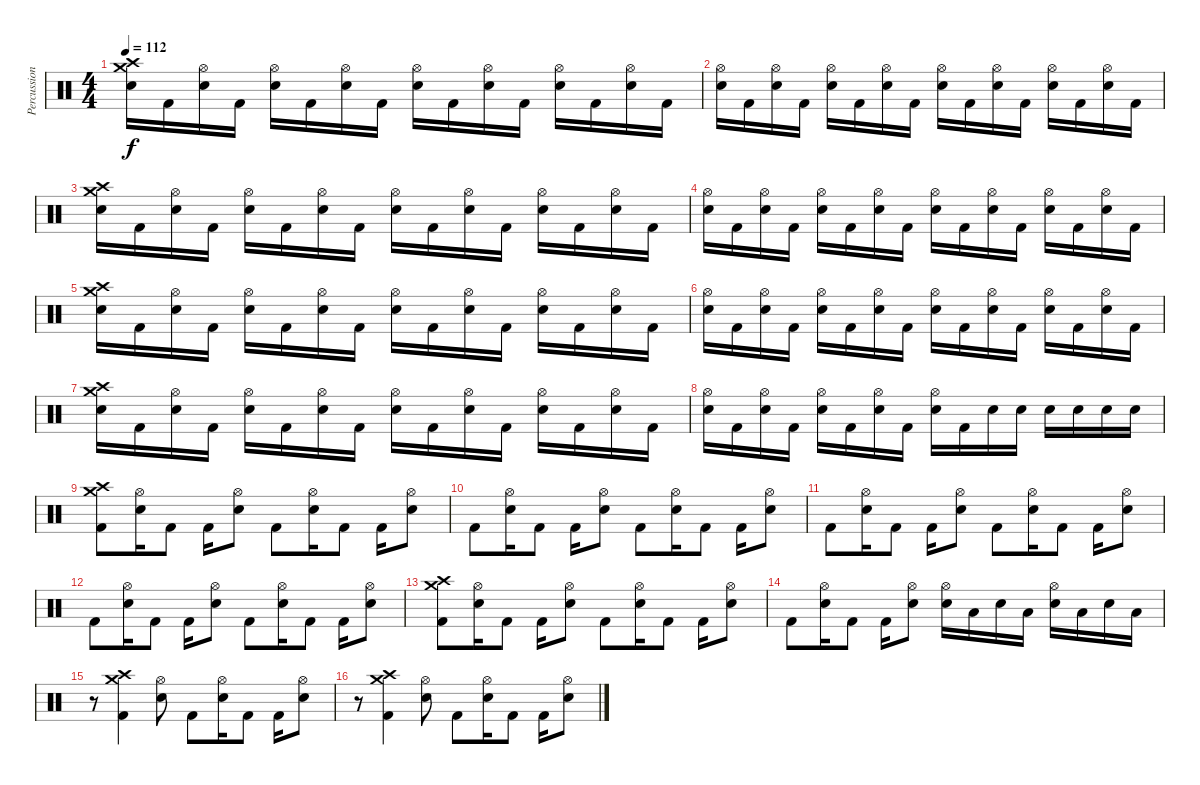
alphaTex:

\track ("Percussion" "Percussion") {instrument percussion}
\staff {score}
\articulation defaults
\ts (4 4)
\tempo 112
\clef neutral
\ks c
("Electric Snare (hit)" "Crash high (hit)" "Crash medium (hit)").16{dy f} "Kick (hit) 2".16 ("Electric Snare (hit)" "Hi-Hat (open)").16 "Kick (hit) 2".16 ("Electric Snare (hit)" "Hi-Hat (open)").16 "Kick (hit) 2".16 ("Electric Snare (hit)" "Hi-Hat (open)").16 "Kick (hit) 2".16 ("Electric Snare (hit)" "Hi-Hat (open)").16 "Kick (hit) 2".16 ("Electric Snare (hit)" "Hi-Hat (open)").16 "Kick (hit) 2".16 ("Electric Snare (hit)" "Hi-Hat (open)").16 "Kick (hit) 2".16 ("Electric Snare (hit)" "Hi-Hat (open)").16 "Kick (hit) 2".16 |
("Electric Snare (hit)" "Hi-Hat (open)").16 "Kick (hit) 2".16 ("Electric Snare (hit)" "Hi-Hat (open)").16 "Kick (hit) 2".16 ("Electric Snare (hit)" "Hi-Hat (open)").16 "Kick (hit) 2".16 ("Electric Snare (hit)" "Hi-Hat (open)").16 "Kick (hit) 2".16 ("Electric Snare (hit)" "Hi-Hat (open)").16 "Kick (hit) 2".16 ("Electric Snare (hit)" "Hi-Hat (open)").16 "Kick (hit) 2".16 ("Electric Snare (hit)" "Hi-Hat (open)").16 "Kick (hit) 2".16 ("Electric Snare (hit)" "Hi-Hat (open)").16 "Kick (hit) 2".16 |
("Electric Snare (hit)" "Crash high (hit)" "Crash medium (hit)").16 "Kick (hit) 2".16 ("Electric Snare (hit)" "Hi-Hat (open)").16 "Kick (hit) 2".16 ("Electric Snare (hit)" "Hi-Hat (open)").16 "Kick (hit) 2".16 ("Electric Snare (hit)" "Hi-Hat (open)").16 "Kick (hit) 2".16 ("Electric Snare (hit)" "Hi-Hat (open)").16 "Kick (hit) 2".16 ("Electric Snare (hit)" "Hi-Hat (open)").16 "Kick (hit) 2".16 ("Electric Snare (hit)" "Hi-Hat (open)").16 "Kick (hit) 2".16 ("Electric Snare (hit)" "Hi-Hat (open)").16 "Kick (hit) 2".16 |
("Electric Snare (hit)" "Hi-Hat (open)").16 "Kick (hit) 2".16 ("Electric Snare (hit)" "Hi-Hat (open)").16 "Kick (hit) 2".16 ("Electric Snare (hit)" "Hi-Hat (open)").16 "Kick (hit) 2".16 ("Electric Snare (hit)" "Hi-Hat (open)").16 "Kick (hit) 2".16 ("Electric Snare (hit)" "Hi-Hat (open)").16 "Kick (hit) 2".16 ("Electric Snare (hit)" "Hi-Hat (open)").16 "Kick (hit) 2".16 ("Electric Snare (hit)" "Hi-Hat (open)").16 "Kick (hit) 2".16 ("Electric Snare (hit)" "Hi-Hat (open)").16 "Kick (hit) 2".16 |
("Electric Snare (hit)" "Crash high (hit)" "Crash medium (hit)").16 "Kick (hit) 2".16 ("Electric Snare (hit)" "Hi-Hat (open)").16 "Kick (hit) 2".16 ("Electric Snare (hit)" "Hi-Hat (open)").16 "Kick (hit) 2".16 ("Electric Snare (hit)" "Hi-Hat (open)").16 "Kick (hit) 2".16 ("Electric Snare (hit)" "Hi-Hat (open)").16 "Kick (hit) 2".16 ("Electric Snare (hit)" "Hi-Hat (open)").16 "Kick (hit) 2".16 ("Electric Snare (hit)" "Hi-Hat (open)").16 "Kick (hit) 2".16 ("Electric Snare (hit)" "Hi-Hat (open)").16 "Kick (hit) 2".16 |
("Electric Snare (hit)" "Hi-Hat (open)").16 "Kick (hit) 2".16 ("Electric Snare (hit)" "Hi-Hat (open)").16 "Kick (hit) 2".16 ("Electric Snare (hit)" "Hi-Hat (open)").16 "Kick (hit) 2".16 ("Electric Snare (hit)" "Hi-Hat (open)").16 "Kick (hit) 2".16 ("Electric Snare (hit)" "Hi-Hat (open)").16 "Kick (hit) 2".16 ("Electric Snare (hit)" "Hi-Hat (open)").16 "Kick (hit) 2".16 ("Electric Snare (hit)" "Hi-Hat (open)").16 "Kick (hit) 2".16 ("Electric Snare (hit)" "Hi-Hat (open)").16 "Kick (hit) 2".16 |
("Electric Snare (hit)" "Crash high (hit)" "Crash medium (hit)").16 "Kick (hit) 2".16 ("Electric Snare (hit)" "Hi-Hat (open)").16 "Kick (hit) 2".16 ("Electric Snare (hit)" "Hi-Hat (open)").16 "Kick (hit) 2".16 ("Electric Snare (hit)" "Hi-Hat (open)").16 "Kick (hit) 2".16 ("Electric Snare (hit)" "Hi-Hat (open)").16 "Kick (hit) 2".16 ("Electric Snare (hit)" "Hi-Hat (open)").16 "Kick (hit) 2".16 ("Electric Snare (hit)" "Hi-Hat (open)").16 "Kick (hit) 2".16 ("Electric Snare (hit)" "Hi-Hat (open)").16 "Kick (hit) 2".16 |
("Electric Snare (hit)" "Hi-Hat (open)").16 "Kick (hit) 2".16 ("Electric Snare (hit)" "Hi-Hat (open)").16 "Kick (hit) 2".16 ("Electric Snare (hit)" "Hi-Hat (open)").16 "Kick (hit) 2".16 ("Electric Snare (hit)" "Hi-Hat (open)").16 "Kick (hit) 2".16 ("Electric Snare (hit)" "Hi-Hat (open)").16 "Kick (hit) 2".16 "Electric Snare (hit)".16 "Electric Snare (hit)".16 "Electric Snare (hit)".16 "Electric Snare (hit)".16 "Electric Snare (hit)".16 "Electric Snare (hit)".16 |
("Kick (hit) 2" "Crash high (hit)" "Crash medium (hit)").8 ("Electric Snare (hit)" "Hi-Hat (open)").16 "Kick (hit) 2".8 "Kick (hit) 2".16 ("Electric Snare (hit)" "Hi-Hat (open)").8 "Kick (hit) 2".8 ("Electric Snare (hit)" "Hi-Hat (open)").16 "Kick (hit) 2".8 "Kick (hit) 2".16 ("Electric Snare (hit)" "Hi-Hat (open)").8 |
"Kick (hit) 2".8 ("Electric Snare (hit)" "Hi-Hat (open)").16 "Kick (hit) 2".8 "Kick (hit) 2".16 ("Electric Snare (hit)" "Hi-Hat (open)").8 "Kick (hit) 2".8 ("Electric Snare (hit)" "Hi-Hat (open)").16 "Kick (hit) 2".8 "Kick (hit) 2".16 ("Electric Snare (hit)" "Hi-Hat (open)").8 |
"Kick (hit) 2".8 ("Electric Snare (hit)" "Hi-Hat (open)").16 "Kick (hit) 2".8 "Kick (hit) 2".16 ("Electric Snare (hit)" "Hi-Hat (open)").8 "Kick (hit) 2".8 ("Electric Snare (hit)" "Hi-Hat (open)").16 "Kick (hit) 2".8 "Kick (hit) 2".16 ("Electric Snare (hit)" "Hi-Hat (open)").8 |
"Kick (hit) 2".8 ("Electric Snare (hit)" "Hi-Hat (open)").16 "Kick (hit) 2".8 "Kick (hit) 2".16 ("Electric Snare (hit)" "Hi-Hat (open)").8 "Kick (hit) 2".8 ("Electric Snare (hit)" "Hi-Hat (open)").16 "Kick (hit) 2".8 "Kick (hit) 2".16 ("Electric Snare (hit)" "Hi-Hat (open)").8 |
("Kick (hit) 2" "Crash high (hit)" "Crash medium (hit)").8 ("Electric Snare (hit)" "Hi-Hat (open)").16 "Kick (hit) 2".8 "Kick (hit) 2".16 ("Electric Snare (hit)" "Hi-Hat (open)").8 "Kick (hit) 2".8 ("Electric Snare (hit)" "Hi-Hat (open)").16 "Kick (hit) 2".8 "Kick (hit) 2".16 ("Electric Snare (hit)" "Hi-Hat (open)").8 |
"Kick (hit) 2".8 ("Electric Snare (hit)" "Hi-Hat (open)").16 "Kick (hit) 2".8 "Kick (hit) 2".16 ("Electric Snare (hit)" "Hi-Hat (open)").8 ("Electric Snare (hit)" "Hi-Hat (open)").16 "Low Tom (hit)".16 "Electric Snare (hit)".16 "Low Tom (hit)".16 ("Electric Snare (hit)" "Hi-Hat (open)").16 "Low Tom (hit)".16 "Electric Snare (hit)".16 "Low Tom (hit)".16 |
r.8 ("Kick (hit) 2" "Crash high (hit)" "Crash medium (hit)").4 ("Electric Snare (hit)" "Hi-Hat (open)").8 "Kick (hit) 2".8 ("Electric Snare (hit)" "Hi-Hat (open)").16 "Kick (hit) 2".8 "Kick (hit) 2".16 ("Electric Snare (hit)" "Hi-Hat (open)").8 |
r.8 ("Kick (hit) 2" "Crash high (hit)" "Crash medium (hit)").4 ("Electric Snare (hit)" "Hi-Hat (open)").8 "Kick (hit) 2".8 ("Electric Snare (hit)" "Hi-Hat (open)").16 "Kick (hit) 2".8 "Kick (hit) 2".16 ("Electric Snare (hit)" "Hi-Hat (open)").8
